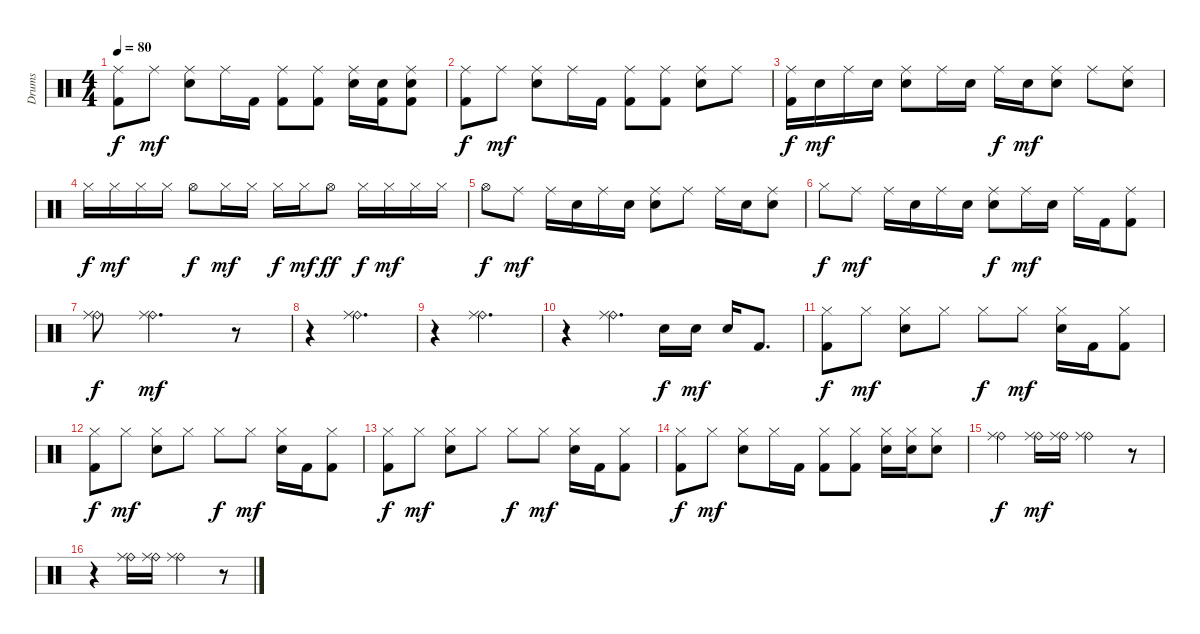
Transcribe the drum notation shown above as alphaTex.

\track ("Drums" "Drums") {instrument percussion}
\staff {score}
\articulation defaults
\ts (4 4)
\tempo 80
\clef neutral
\ks c
("Ride (middle)" "Kick (hit) 2").8{dy f} "Ride (middle)".8{dy mf} ("Ride (middle)" "Electric Snare (hit)").8 "Ride (middle)".16 "Kick (hit) 2".16 ("Ride (middle)" "Kick (hit) 2").8 ("Ride (middle)" "Kick (hit) 2").8 ("Ride (middle)" "Electric Snare (hit)").16 ("Electric Snare (hit)" "Kick (hit) 2").16 ("Ride (middle)" "Electric Snare (hit)" "Kick (hit) 2").8 |
("Ride (middle)" "Kick (hit) 2").8{dy f} "Ride (middle)".8{dy mf} ("Ride (middle)" "Electric Snare (hit)").8 "Ride (middle)".16 "Kick (hit) 2".16 ("Ride (middle)" "Kick (hit) 2").8 ("Ride (middle)" "Kick (hit) 2").8 ("Ride (middle)" "Electric Snare (hit)").8 "Ride (middle)".8 |
("Ride (middle)" "Kick (hit) 2").16{dy f} "Electric Snare (hit)".16{dy mf} "Ride (middle)".16 "Electric Snare (hit)".16 ("Ride (middle)" "Electric Snare (hit)").8 "Ride (middle)".16 "Electric Snare (hit)".16 "Ride (middle)".16{dy f} "Electric Snare (hit)".16{dy mf} ("Ride (middle)" "Electric Snare (hit)").8 "Ride (middle)".8 ("Ride (middle)" "Electric Snare (hit)").8 |
"Hi-Hat (closed)".16{dy f} "Hi-Hat (closed)".16{dy mf} "Hi-Hat (closed)".16 "Hi-Hat (closed)".16 "Hi-Hat (open)".8{dy f} "Hi-Hat (closed)".16{dy mf} "Hi-Hat (closed)".16 "Hi-Hat (closed)".16{dy f} "Hi-Hat (closed)".16{dy mf} "Hi-Hat (open)".8{dy ff} "Hi-Hat (closed)".16{dy f} "Hi-Hat (closed)".16{dy mf} "Hi-Hat (closed)".16 "Hi-Hat (closed)".16 |
"Hi-Hat (open)".8{dy f} "Ride (middle)".8{dy mf} "Ride (middle)".16 "Electric Snare (hit)".16 "Ride (middle)".16 "Electric Snare (hit)".16 ("Ride (middle)" "Electric Snare (hit)").8 "Ride (middle)".8 "Ride (middle)".16 "Electric Snare (hit)".16 ("Ride (middle)" "Electric Snare (hit)").8 |
"Hi-Hat (closed)".8{dy f} "Ride (middle)".8{dy mf} "Ride (middle)".16 "Electric Snare (hit)".16 "Ride (middle)".16 "Electric Snare (hit)".16 ("Ride (middle)" "Electric Snare (hit)").8{dy f} "Ride (middle)".16{dy mf} "Electric Snare (hit)".16 "Ride (middle)".16 "Kick (hit) 2".16 ("Ride (middle)" "Kick (hit) 2").8 |
("Ride (bell)" "Ride (middle)").8{dy f} ("Ride (bell)" "Ride (middle)").2{d dy mf} r.8 |
r.4 ("Ride (bell)" "Ride (middle)").2{d} |
r.4 ("Ride (bell)" "Ride (middle)").2{d} |
r.4 ("Ride (bell)" "Ride (middle)").4{d} "Electric Snare (hit)".16{dy f} "Electric Snare (hit)".16{dy mf} "Electric Snare (hit)".16 "Kick (hit) 2".8{d} |
("Hi-Hat (closed)" "Kick (hit) 2").8{dy f} "Hi-Hat (closed)".8{dy mf} ("Hi-Hat (closed)" "Electric Snare (hit)").8 "Hi-Hat (closed)".8 "Hi-Hat (closed)".8{dy f} "Hi-Hat (closed)".8{dy mf} ("Hi-Hat (closed)" "Electric Snare (hit)").16 "Kick (hit) 2".16 ("Hi-Hat (closed)" "Kick (hit) 2").8 |
("Hi-Hat (closed)" "Kick (hit) 2").8{dy f} "Hi-Hat (closed)".8{dy mf} ("Hi-Hat (closed)" "Electric Snare (hit)").8 "Hi-Hat (closed)".8 "Hi-Hat (closed)".8{dy f} "Hi-Hat (closed)".8{dy mf} ("Hi-Hat (closed)" "Electric Snare (hit)").16 "Kick (hit) 2".16 ("Hi-Hat (closed)" "Kick (hit) 2").8 |
("Hi-Hat (closed)" "Kick (hit) 2").8{dy f} "Hi-Hat (closed)".8{dy mf} ("Hi-Hat (closed)" "Electric Snare (hit)").8 "Hi-Hat (closed)".8 "Hi-Hat (closed)".8{dy f} "Hi-Hat (closed)".8{dy mf} ("Hi-Hat (closed)" "Electric Snare (hit)").16 "Kick (hit) 2".16 ("Hi-Hat (closed)" "Kick (hit) 2").8 |
("Hi-Hat (closed)" "Kick (hit) 2").8{dy f} "Hi-Hat (closed)".8{dy mf} ("Hi-Hat (closed)" "Electric Snare (hit)").8 "Hi-Hat (closed)".16 "Kick (hit) 2".16 ("Hi-Hat (closed)" "Kick (hit) 2").8 ("Hi-Hat (closed)" "Kick (hit) 2").8 ("Hi-Hat (closed)" "Electric Snare (hit)").16 ("Hi-Hat (closed)" "Electric Snare (hit)").16 ("Hi-Hat (closed)" "Electric Snare (hit)").8 |
("Ride (bell)" "Ride (middle)").4{dy f} ("Ride (bell)" "Ride (middle)").16{dy mf} ("Ride (bell)" "Ride (middle)").16 ("Ride (bell)" "Ride (middle)").2 r.8 |
r.4 ("Ride (bell)" "Ride (middle)").16 ("Ride (bell)" "Ride (middle)").16 ("Ride (bell)" "Ride (middle)").2 r.8
